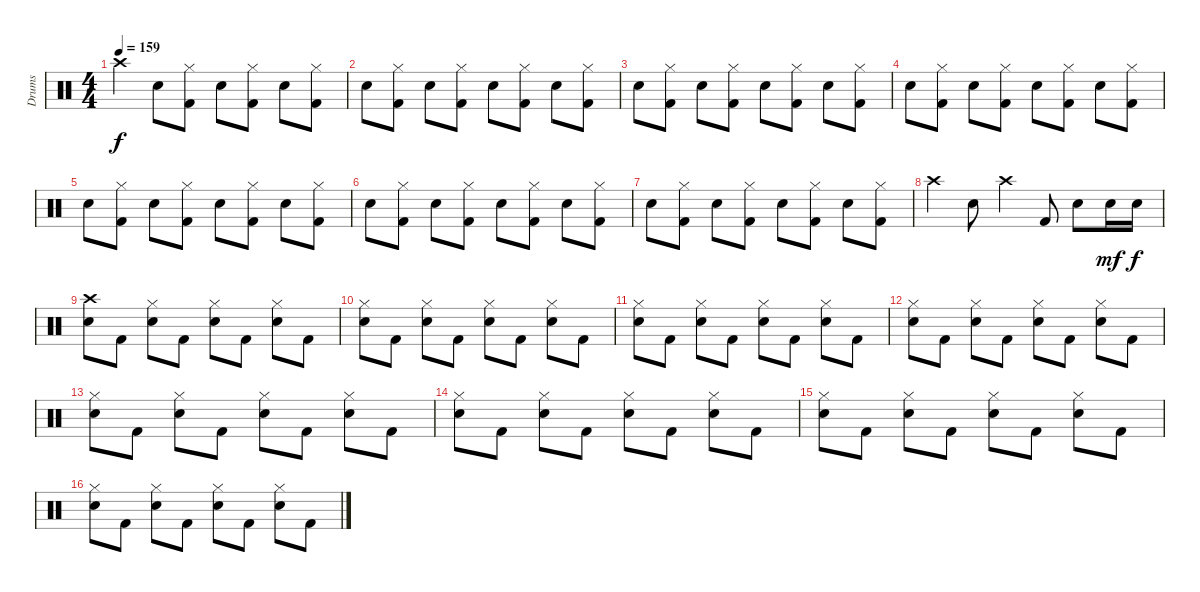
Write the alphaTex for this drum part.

\track ("Drums" "Drums") {instrument percussion}
\staff {score}
\articulation defaults
\ts (4 4)
\tempo 159
\clef neutral
\ks c "Crash high (hit)".4{dy f} "Electric Snare (hit)".8
("Kick (hit) 2" "Hi-Hat (closed)").8 "Electric Snare (hit)".8 ("Kick (hit) 2" "Hi-Hat (closed)").8 "Electric Snare (hit)".8 ("Kick (hit) 2" "Hi-Hat (closed)").8 |
"Electric Snare (hit)".8 ("Kick (hit) 2" "Hi-Hat (closed)").8 "Electric Snare (hit)".8 ("Kick (hit) 2" "Hi-Hat (closed)").8 "Electric Snare (hit)".8 ("Kick (hit) 2" "Hi-Hat (closed)").8 "Electric Snare (hit)".8 ("Kick (hit) 2" "Hi-Hat (closed)").8 |
"Electric Snare (hit)".8 ("Kick (hit) 2" "Hi-Hat (closed)").8 "Electric Snare (hit)".8 ("Kick (hit) 2" "Hi-Hat (closed)").8 "Electric Snare (hit)".8 ("Kick (hit) 2" "Hi-Hat (closed)").8 "Electric Snare (hit)".8 ("Kick (hit) 2" "Hi-Hat (closed)").8 |
"Electric Snare (hit)".8 ("Kick (hit) 2" "Hi-Hat (closed)").8 "Electric Snare (hit)".8 ("Kick (hit) 2" "Hi-Hat (closed)").8 "Electric Snare (hit)".8 ("Kick (hit) 2" "Hi-Hat (closed)").8 "Electric Snare (hit)".8 ("Kick (hit) 2" "Hi-Hat (closed)").8 |
"Electric Snare (hit)".8 ("Kick (hit) 2" "Hi-Hat (closed)").8 "Electric Snare (hit)".8 ("Kick (hit) 2" "Hi-Hat (closed)").8 "Electric Snare (hit)".8 ("Kick (hit) 2" "Hi-Hat (closed)").8 "Electric Snare (hit)".8 ("Kick (hit) 2" "Hi-Hat (closed)").8 |
"Electric Snare (hit)".8 ("Kick (hit) 2" "Hi-Hat (closed)").8 "Electric Snare (hit)".8 ("Kick (hit) 2" "Hi-Hat (closed)").8 "Electric Snare (hit)".8 ("Kick (hit) 2" "Hi-Hat (closed)").8 "Electric Snare (hit)".8 ("Kick (hit) 2" "Hi-Hat (closed)").8 |
"Electric Snare (hit)".8 ("Kick (hit) 2" "Hi-Hat (closed)").8 "Electric Snare (hit)".8 ("Kick (hit) 2" "Hi-Hat (closed)").8 "Electric Snare (hit)".8 ("Kick (hit) 2" "Hi-Hat (closed)").8 "Electric Snare (hit)".8 ("Kick (hit) 2" "Hi-Hat (closed)").8 |
"Crash high (hit)".4 "Electric Snare (hit)".8 "Crash high (hit)".4 "Kick (hit) 2".8 "Electric Snare (hit)".8 "Electric Snare (hit)".16{dy mf} "Electric Snare (hit)".16{dy f} |
("Electric Snare (hit)" "Crash high (hit)").8 "Kick (hit) 2".8 ("Electric Snare (hit)" "Hi-Hat (closed)").8 "Kick (hit) 2".8 ("Electric Snare (hit)" "Hi-Hat (closed)").8 "Kick (hit) 2".8 ("Electric Snare (hit)" "Hi-Hat (closed)").8 "Kick (hit) 2".8 |
("Electric Snare (hit)" "Hi-Hat (closed)").8 "Kick (hit) 2".8 ("Electric Snare (hit)" "Hi-Hat (closed)").8 "Kick (hit) 2".8 ("Electric Snare (hit)" "Hi-Hat (closed)").8 "Kick (hit) 2".8 ("Electric Snare (hit)" "Hi-Hat (closed)").8 "Kick (hit) 2".8 |
("Electric Snare (hit)" "Hi-Hat (closed)").8 "Kick (hit) 2".8 ("Electric Snare (hit)" "Hi-Hat (closed)").8 "Kick (hit) 2".8 ("Electric Snare (hit)" "Hi-Hat (closed)").8 "Kick (hit) 2".8 ("Electric Snare (hit)" "Hi-Hat (closed)").8 "Kick (hit) 2".8 |
("Electric Snare (hit)" "Hi-Hat (closed)").8 "Kick (hit) 2".8 ("Electric Snare (hit)" "Hi-Hat (closed)").8 "Kick (hit) 2".8 ("Electric Snare (hit)" "Hi-Hat (closed)").8 "Kick (hit) 2".8 ("Electric Snare (hit)" "Hi-Hat (closed)").8 "Kick (hit) 2".8 |
("Electric Snare (hit)" "Hi-Hat (closed)").8 "Kick (hit) 2".8 ("Electric Snare (hit)" "Hi-Hat (closed)").8 "Kick (hit) 2".8 ("Electric Snare (hit)" "Hi-Hat (closed)").8 "Kick (hit) 2".8 ("Electric Snare (hit)" "Hi-Hat (closed)").8 "Kick (hit) 2".8 |
("Electric Snare (hit)" "Hi-Hat (closed)").8 "Kick (hit) 2".8 ("Electric Snare (hit)" "Hi-Hat (closed)").8 "Kick (hit) 2".8 ("Electric Snare (hit)" "Hi-Hat (closed)").8 "Kick (hit) 2".8 ("Electric Snare (hit)" "Hi-Hat (closed)").8 "Kick (hit) 2".8 |
("Electric Snare (hit)" "Hi-Hat (closed)").8 "Kick (hit) 2".8 ("Electric Snare (hit)" "Hi-Hat (closed)").8 "Kick (hit) 2".8 ("Electric Snare (hit)" "Hi-Hat (closed)").8 "Kick (hit) 2".8 ("Electric Snare (hit)" "Hi-Hat (closed)").8 "Kick (hit) 2".8 |
("Electric Snare (hit)" "Hi-Hat (closed)").8 "Kick (hit) 2".8 ("Electric Snare (hit)" "Hi-Hat (closed)").8 "Kick (hit) 2".8 ("Electric Snare (hit)" "Hi-Hat (closed)").8 "Kick (hit) 2".8 ("Electric Snare (hit)" "Hi-Hat (closed)").8 "Kick (hit) 2".8
